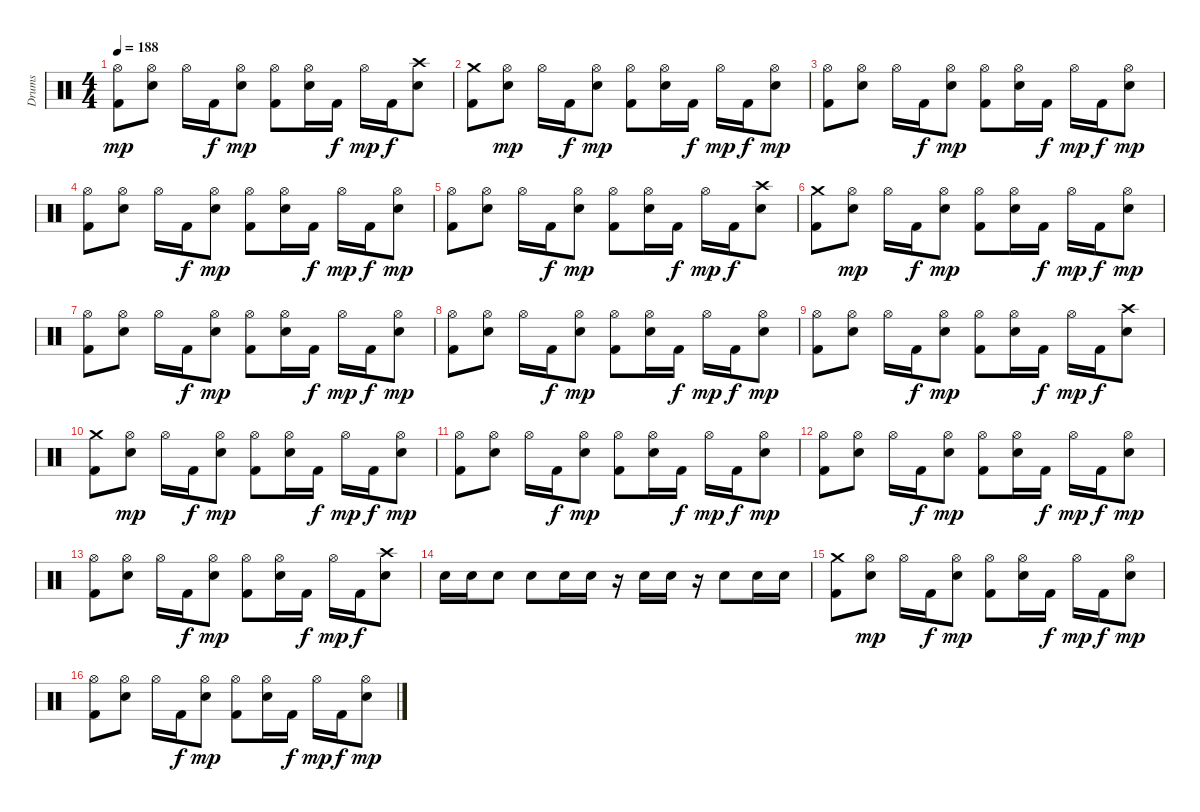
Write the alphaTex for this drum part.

\track ("Drums" "Drums") {instrument percussion}
\staff {score}
\articulation defaults
\ts (4 4)
\tempo 188
\clef neutral
\ks c
("Hi-Hat (open)" "Kick (hit) 2").8{dy mp} ("Hi-Hat (open)" "Snare (hit) 2").8 "Hi-Hat (open)".16 "Kick (hit) 2".16{dy f} ("Hi-Hat (open)" "Snare (hit) 2").8{dy mp} ("Hi-Hat (open)" "Kick (hit) 2").8 ("Hi-Hat (open)" "Snare (hit) 2").16 "Kick (hit) 2".16{dy f} "Hi-Hat (open)".16{dy mp} "Kick (hit) 2".16{dy f} ("Crash high (hit)" "Snare (hit) 2").8 |
("Crash medium (hit)" "Kick (hit) 2").8 ("Hi-Hat (open)" "Snare (hit) 2").8{dy mp} "Hi-Hat (open)".16 "Kick (hit) 2".16{dy f} ("Hi-Hat (open)" "Snare (hit) 2").8{dy mp} ("Hi-Hat (open)" "Kick (hit) 2").8 ("Hi-Hat (open)" "Snare (hit) 2").16 "Kick (hit) 2".16{dy f} "Hi-Hat (open)".16{dy mp} "Kick (hit) 2".16{dy f} ("Hi-Hat (open)" "Snare (hit) 2").8{dy mp} |
("Hi-Hat (open)" "Kick (hit) 2").8 ("Hi-Hat (open)" "Snare (hit) 2").8 "Hi-Hat (open)".16 "Kick (hit) 2".16{dy f} ("Hi-Hat (open)" "Snare (hit) 2").8{dy mp} ("Hi-Hat (open)" "Kick (hit) 2").8 ("Hi-Hat (open)" "Snare (hit) 2").16 "Kick (hit) 2".16{dy f} "Hi-Hat (open)".16{dy mp} "Kick (hit) 2".16{dy f} ("Hi-Hat (open)" "Snare (hit) 2").8{dy mp} |
("Hi-Hat (open)" "Kick (hit) 2").8 ("Hi-Hat (open)" "Snare (hit) 2").8 "Hi-Hat (open)".16 "Kick (hit) 2".16{dy f} ("Hi-Hat (open)" "Snare (hit) 2").8{dy mp} ("Hi-Hat (open)" "Kick (hit) 2").8 ("Hi-Hat (open)" "Snare (hit) 2").16 "Kick (hit) 2".16{dy f} "Hi-Hat (open)".16{dy mp} "Kick (hit) 2".16{dy f} ("Hi-Hat (open)" "Snare (hit) 2").8{dy mp} |
("Hi-Hat (open)" "Kick (hit) 2").8 ("Hi-Hat (open)" "Snare (hit) 2").8 "Hi-Hat (open)".16 "Kick (hit) 2".16{dy f} ("Hi-Hat (open)" "Snare (hit) 2").8{dy mp} ("Hi-Hat (open)" "Kick (hit) 2").8 ("Hi-Hat (open)" "Snare (hit) 2").16 "Kick (hit) 2".16{dy f} "Hi-Hat (open)".16{dy mp} "Kick (hit) 2".16{dy f} ("Crash high (hit)" "Snare (hit) 2").8 |
("Crash medium (hit)" "Kick (hit) 2").8 ("Hi-Hat (open)" "Snare (hit) 2").8{dy mp} "Hi-Hat (open)".16 "Kick (hit) 2".16{dy f} ("Hi-Hat (open)" "Snare (hit) 2").8{dy mp} ("Hi-Hat (open)" "Kick (hit) 2").8 ("Hi-Hat (open)" "Snare (hit) 2").16 "Kick (hit) 2".16{dy f} "Hi-Hat (open)".16{dy mp} "Kick (hit) 2".16{dy f} ("Hi-Hat (open)" "Snare (hit) 2").8{dy mp} |
("Hi-Hat (open)" "Kick (hit) 2").8 ("Hi-Hat (open)" "Snare (hit) 2").8 "Hi-Hat (open)".16 "Kick (hit) 2".16{dy f} ("Hi-Hat (open)" "Snare (hit) 2").8{dy mp} ("Hi-Hat (open)" "Kick (hit) 2").8 ("Hi-Hat (open)" "Snare (hit) 2").16 "Kick (hit) 2".16{dy f} "Hi-Hat (open)".16{dy mp} "Kick (hit) 2".16{dy f} ("Hi-Hat (open)" "Snare (hit) 2").8{dy mp} |
("Hi-Hat (open)" "Kick (hit) 2").8 ("Hi-Hat (open)" "Snare (hit) 2").8 "Hi-Hat (open)".16 "Kick (hit) 2".16{dy f} ("Hi-Hat (open)" "Snare (hit) 2").8{dy mp} ("Hi-Hat (open)" "Kick (hit) 2").8 ("Hi-Hat (open)" "Snare (hit) 2").16 "Kick (hit) 2".16{dy f} "Hi-Hat (open)".16{dy mp} "Kick (hit) 2".16{dy f} ("Hi-Hat (open)" "Snare (hit) 2").8{dy mp} |
("Hi-Hat (open)" "Kick (hit) 2").8 ("Hi-Hat (open)" "Snare (hit) 2").8 "Hi-Hat (open)".16 "Kick (hit) 2".16{dy f} ("Hi-Hat (open)" "Snare (hit) 2").8{dy mp} ("Hi-Hat (open)" "Kick (hit) 2").8 ("Hi-Hat (open)" "Snare (hit) 2").16 "Kick (hit) 2".16{dy f} "Hi-Hat (open)".16{dy mp} "Kick (hit) 2".16{dy f} ("Crash high (hit)" "Snare (hit) 2").8 |
("Crash medium (hit)" "Kick (hit) 2").8 ("Hi-Hat (open)" "Snare (hit) 2").8{dy mp} "Hi-Hat (open)".16 "Kick (hit) 2".16{dy f} ("Hi-Hat (open)" "Snare (hit) 2").8{dy mp} ("Hi-Hat (open)" "Kick (hit) 2").8 ("Hi-Hat (open)" "Snare (hit) 2").16 "Kick (hit) 2".16{dy f} "Hi-Hat (open)".16{dy mp} "Kick (hit) 2".16{dy f} ("Hi-Hat (open)" "Snare (hit) 2").8{dy mp} |
("Hi-Hat (open)" "Kick (hit) 2").8 ("Hi-Hat (open)" "Snare (hit) 2").8 "Hi-Hat (open)".16 "Kick (hit) 2".16{dy f} ("Hi-Hat (open)" "Snare (hit) 2").8{dy mp} ("Hi-Hat (open)" "Kick (hit) 2").8 ("Hi-Hat (open)" "Snare (hit) 2").16 "Kick (hit) 2".16{dy f} "Hi-Hat (open)".16{dy mp} "Kick (hit) 2".16{dy f} ("Hi-Hat (open)" "Snare (hit) 2").8{dy mp} |
("Hi-Hat (open)" "Kick (hit) 2").8 ("Hi-Hat (open)" "Snare (hit) 2").8 "Hi-Hat (open)".16 "Kick (hit) 2".16{dy f} ("Hi-Hat (open)" "Snare (hit) 2").8{dy mp} ("Hi-Hat (open)" "Kick (hit) 2").8 ("Hi-Hat (open)" "Snare (hit) 2").16 "Kick (hit) 2".16{dy f} "Hi-Hat (open)".16{dy mp} "Kick (hit) 2".16{dy f} ("Hi-Hat (open)" "Snare (hit) 2").8{dy mp} |
("Hi-Hat (open)" "Kick (hit) 2").8 ("Hi-Hat (open)" "Snare (hit) 2").8 "Hi-Hat (open)".16 "Kick (hit) 2".16{dy f} ("Hi-Hat (open)" "Snare (hit) 2").8{dy mp} ("Hi-Hat (open)" "Kick (hit) 2").8 ("Hi-Hat (open)" "Snare (hit) 2").16 "Kick (hit) 2".16{dy f} "Hi-Hat (open)".16{dy mp} "Kick (hit) 2".16{dy f} ("Crash high (hit)" "Snare (hit) 2").8 |
"Snare (hit) 2".16 "Snare (hit) 2".16 "Snare (hit) 2".8 "Snare (hit) 2".8 "Snare (hit) 2".16 "Snare (hit) 2".16 r.16 "Snare (hit) 2".16 "Snare (hit) 2".16 r.16 "Snare (hit) 2".8 "Snare (hit) 2".16 "Snare (hit) 2".16 |
("Crash medium (hit)" "Kick (hit) 2").8 ("Hi-Hat (open)" "Snare (hit) 2").8{dy mp} "Hi-Hat (open)".16 "Kick (hit) 2".16{dy f} ("Hi-Hat (open)" "Snare (hit) 2").8{dy mp} ("Hi-Hat (open)" "Kick (hit) 2").8 ("Hi-Hat (open)" "Snare (hit) 2").16 "Kick (hit) 2".16{dy f} "Hi-Hat (open)".16{dy mp} "Kick (hit) 2".16{dy f} ("Hi-Hat (open)" "Snare (hit) 2").8{dy mp} |
("Hi-Hat (open)" "Kick (hit) 2").8 ("Hi-Hat (open)" "Snare (hit) 2").8 "Hi-Hat (open)".16 "Kick (hit) 2".16{dy f} ("Hi-Hat (open)" "Snare (hit) 2").8{dy mp} ("Hi-Hat (open)" "Kick (hit) 2").8 ("Hi-Hat (open)" "Snare (hit) 2").16 "Kick (hit) 2".16{dy f} "Hi-Hat (open)".16{dy mp} "Kick (hit) 2".16{dy f} ("Hi-Hat (open)" "Snare (hit) 2").8{dy mp}
